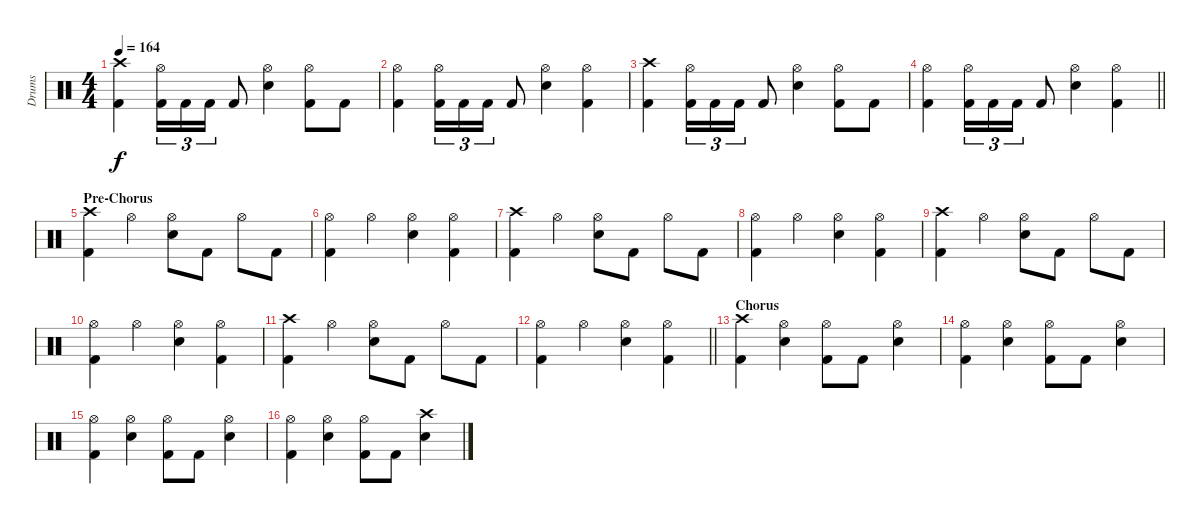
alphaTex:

\track ("Drums" "Drums") {instrument percussion}
\staff {score}
\articulation defaults
\ts (4 4)
\tempo 164
\clef neutral
\ks c
("Crash high (hit)" "Kick (hit) 2").4{dy f} ("Hi-Hat (open)" "Kick (hit) 2").16{tu (3 2)} "Kick (hit) 2".16{tu (3 2)} "Kick (hit) 2".16{tu (3 2)} "Kick (hit) 2".8 ("Hi-Hat (open)" "Snare (hit) 2").4 ("Hi-Hat (open)" "Kick (hit) 2").8 "Kick (hit) 2".8 |
("Hi-Hat (open)" "Kick (hit) 2").4 ("Hi-Hat (open)" "Kick (hit) 2").16{tu (3 2)} "Kick (hit) 2".16{tu (3 2)} "Kick (hit) 2".16{tu (3 2)} "Kick (hit) 2".8 ("Hi-Hat (open)" "Snare (hit) 2").4 ("Hi-Hat (open)" "Kick (hit) 2").4 |
("Crash high (hit)" "Kick (hit) 2").4 ("Hi-Hat (open)" "Kick (hit) 2").16{tu (3 2)} "Kick (hit) 2".16{tu (3 2)} "Kick (hit) 2".16{tu (3 2)} "Kick (hit) 2".8 ("Hi-Hat (open)" "Snare (hit) 2").4 ("Hi-Hat (open)" "Kick (hit) 2").8 "Kick (hit) 2".8 |
\barLineRight lightlight
("Hi-Hat (open)" "Kick (hit) 2").4 ("Hi-Hat (open)" "Kick (hit) 2").16{tu (3 2)} "Kick (hit) 2".16{tu (3 2)} "Kick (hit) 2".16{tu (3 2)} "Kick (hit) 2".8 ("Hi-Hat (open)" "Snare (hit) 2").4 ("Hi-Hat (open)" "Kick (hit) 2").4 |
\section ("" "Pre-Chorus")
("Crash high (hit)" "Kick (hit) 2").4 "Hi-Hat (open)".4 ("Hi-Hat (open)" "Snare (hit) 2").8 "Kick (hit) 2".8 "Hi-Hat (open)".8 "Kick (hit) 2".8 |
("Hi-Hat (open)" "Kick (hit) 2").4 "Hi-Hat (open)".4 ("Hi-Hat (open)" "Snare (hit) 2").4 ("Hi-Hat (open)" "Kick (hit) 2").4 |
("Crash high (hit)" "Kick (hit) 2").4 "Hi-Hat (open)".4 ("Hi-Hat (open)" "Snare (hit) 2").8 "Kick (hit) 2".8 "Hi-Hat (open)".8 "Kick (hit) 2".8 |
("Hi-Hat (open)" "Kick (hit) 2").4 "Hi-Hat (open)".4 ("Hi-Hat (open)" "Snare (hit) 2").4 ("Hi-Hat (open)" "Kick (hit) 2").4 |
("Crash high (hit)" "Kick (hit) 2").4 "Hi-Hat (open)".4 ("Hi-Hat (open)" "Snare (hit) 2").8 "Kick (hit) 2".8 "Hi-Hat (open)".8 "Kick (hit) 2".8 |
("Hi-Hat (open)" "Kick (hit) 2").4 "Hi-Hat (open)".4 ("Hi-Hat (open)" "Snare (hit) 2").4 ("Hi-Hat (open)" "Kick (hit) 2").4 |
("Crash high (hit)" "Kick (hit) 2").4 "Hi-Hat (open)".4 ("Hi-Hat (open)" "Snare (hit) 2").8 "Kick (hit) 2".8 "Hi-Hat (open)".8 "Kick (hit) 2".8 |
\barLineRight lightlight
("Hi-Hat (open)" "Kick (hit) 2").4 "Hi-Hat (open)".4 ("Hi-Hat (open)" "Snare (hit) 2").4 ("Hi-Hat (open)" "Kick (hit) 2").4 |
\section ("" "Chorus")
("Crash high (hit)" "Kick (hit) 2").4 ("Hi-Hat (open)" "Snare (hit) 2").4 ("Hi-Hat (open)" "Kick (hit) 2").8 "Kick (hit) 2".8 ("Hi-Hat (open)" "Snare (hit) 2").4 |
("Hi-Hat (open)" "Kick (hit) 2").4 ("Hi-Hat (open)" "Snare (hit) 2").4 ("Hi-Hat (open)" "Kick (hit) 2").8 "Kick (hit) 2".8 ("Hi-Hat (open)" "Snare (hit) 2").4 |
("Hi-Hat (open)" "Kick (hit) 2").4 ("Hi-Hat (open)" "Snare (hit) 2").4 ("Hi-Hat (open)" "Kick (hit) 2").8 "Kick (hit) 2".8 ("Hi-Hat (open)" "Snare (hit) 2").4 |
("Hi-Hat (open)" "Kick (hit) 2").4 ("Hi-Hat (open)" "Snare (hit) 2").4 ("Hi-Hat (open)" "Kick (hit) 2").8 "Kick (hit) 2".8 ("Crash high (hit)" "Snare (hit) 2").4
